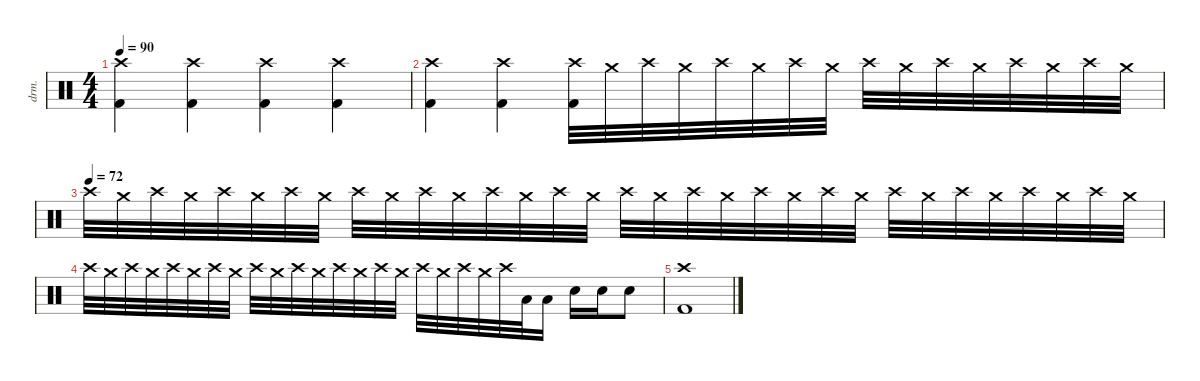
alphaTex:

\defaultSystemsLayout 4
\hideDynamics
\bracketExtendMode nobrackets
\otherSystemsTrackNameOrientation horizontal
\track ("Drums" "drm.") {defaultSystemsLayout 4 instrument percussion}
\staff {score}
\articulation defaults
\ts (4 4)
\beaming (8 2 2 2 2)
\tempo 90
\clef neutral
\ks c
("Crash high (hit)" "Kick (hit) 2").4{dy f beam Down} ("Crash high (hit)" "Kick (hit) 2").4{beam Down} ("Crash high (hit)" "Kick (hit) 2").4{beam Down} ("Crash high (hit)" "Kick (hit) 2").4{beam Down} |
("Crash high (hit)" "Kick (hit) 2").4{beam Down} ("Crash high (hit)" "Kick (hit) 2").4{beam Down} ("Crash high (hit)" "Kick (hit) 2").32{beam Down} "Crash medium (hit)".32{beam Down} "Crash high (hit)".32{beam Down} "Crash medium (hit)".32{beam Down} "Crash high (hit)".32{beam Down} "Crash medium (hit)".32{beam Down} "Crash high (hit)".32{beam Down} "Crash medium (hit)".32{beam Down} "Crash high (hit)".32{beam Down} "Crash medium (hit)".32{beam Down} "Crash high (hit)".32{beam Down} "Crash medium (hit)".32{beam Down} "Crash high (hit)".32{beam Down} "Crash medium (hit)".32{beam Down} "Crash high (hit)".32{beam Down} "Crash medium (hit)".32{beam Down} |
\tempo (72)
"Crash high (hit)".32{beam Down} "Crash medium (hit)".32{beam Down} "Crash high (hit)".32{beam Down} "Crash medium (hit)".32{beam Down} "Crash high (hit)".32{beam Down} "Crash medium (hit)".32{beam Down} "Crash high (hit)".32{beam Down} "Crash medium (hit)".32{beam Down} "Crash high (hit)".32{beam Down} "Crash medium (hit)".32{beam Down} "Crash high (hit)".32{beam Down} "Crash medium (hit)".32{beam Down} "Crash high (hit)".32{beam Down} "Crash medium (hit)".32{beam Down} "Crash high (hit)".32{beam Down} "Crash medium (hit)".32{beam Down} "Crash high (hit)".32{beam Down} "Crash medium (hit)".32{beam Down} "Crash high (hit)".32{beam Down} "Crash medium (hit)".32{beam Down} "Crash high (hit)".32{beam Down} "Crash medium (hit)".32{beam Down} "Crash high (hit)".32{beam Down} "Crash medium (hit)".32{beam Down} "Crash high (hit)".32{beam Down} "Crash medium (hit)".32{beam Down} "Crash high (hit)".32{beam Down} "Crash medium (hit)".32{beam Down} "Crash high (hit)".32{beam Down} "Crash medium (hit)".32{beam Down} "Crash high (hit)".32{beam Down} "Crash medium (hit)".32{beam Down} |
"Crash high (hit)".32{beam Down} "Crash medium (hit)".32{beam Down} "Crash high (hit)".32{beam Down} "Crash medium (hit)".32{beam Down} "Crash high (hit)".32{beam Down} "Crash medium (hit)".32{beam Down} "Crash high (hit)".32{beam Down} "Crash medium (hit)".32{beam Down} "Crash high (hit)".32{beam Down} "Crash medium (hit)".32{beam Down} "Crash high (hit)".32{beam Down} "Crash medium (hit)".32{beam Down} "Crash high (hit)".32{beam Down} "Crash medium (hit)".32{beam Down} "Crash high (hit)".32{beam Down} "Crash medium (hit)".32{beam Down} "Crash high (hit)".32{beam Down} "Crash medium (hit)".32{beam Down} "Crash high (hit)".32{beam Down} "Crash medium (hit)".32{beam Down} "Crash high (hit)".32{beam Down} "Low Tom (hit)".32{beam Down} "Low Tom (hit)".16{beam Down} "Snare (hit) 2".16{beam Down} "Snare (hit) 2".16{beam Down} "Snare (hit) 2".8{dy fff beam Down} |
("Crash high (hit)" "Kick (hit) 2").1{beam Down}
